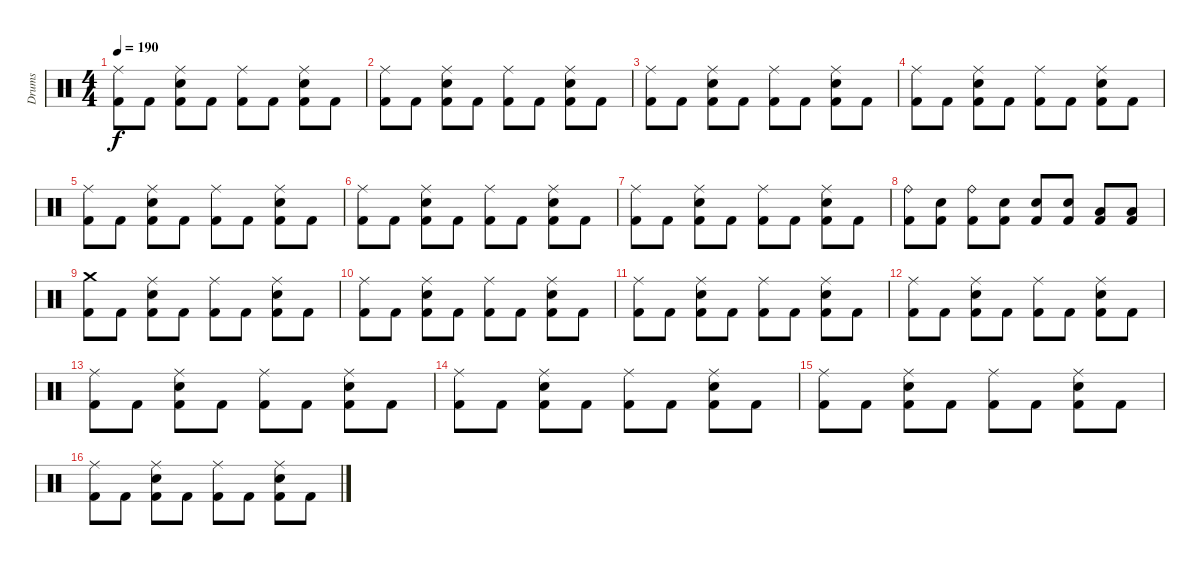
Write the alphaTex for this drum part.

\track ("Drums" "Drums") {instrument percussion}
\staff {score}
\articulation defaults
\ts (4 4)
\tempo 190
\clef neutral
\ks c
("Ride (middle)" "Kick (hit) 2").8{dy f} "Kick (hit) 2".8 ("Ride (middle)" "Snare (hit) 2" "Kick (hit) 2").8 "Kick (hit) 2".8 ("Ride (middle)" "Kick (hit) 2").8 "Kick (hit) 2".8 ("Ride (middle)" "Snare (hit) 2" "Kick (hit) 2").8 "Kick (hit) 2".8 |
("Ride (middle)" "Kick (hit) 2").8 "Kick (hit) 2".8 ("Ride (middle)" "Snare (hit) 2" "Kick (hit) 2").8 "Kick (hit) 2".8 ("Ride (middle)" "Kick (hit) 2").8 "Kick (hit) 2".8 ("Ride (middle)" "Snare (hit) 2" "Kick (hit) 2").8 "Kick (hit) 2".8 |
("Ride (middle)" "Kick (hit) 2").8 "Kick (hit) 2".8 ("Ride (middle)" "Snare (hit) 2" "Kick (hit) 2").8 "Kick (hit) 2".8 ("Ride (middle)" "Kick (hit) 2").8 "Kick (hit) 2".8 ("Ride (middle)" "Snare (hit) 2" "Kick (hit) 2").8 "Kick (hit) 2".8 |
("Ride (middle)" "Kick (hit) 2").8 "Kick (hit) 2".8 ("Ride (middle)" "Snare (hit) 2" "Kick (hit) 2").8 "Kick (hit) 2".8 ("Ride (middle)" "Kick (hit) 2").8 "Kick (hit) 2".8 ("Ride (middle)" "Snare (hit) 2" "Kick (hit) 2").8 "Kick (hit) 2".8 |
("Ride (middle)" "Kick (hit) 2").8 "Kick (hit) 2".8 ("Ride (middle)" "Snare (hit) 2" "Kick (hit) 2").8 "Kick (hit) 2".8 ("Ride (middle)" "Kick (hit) 2").8 "Kick (hit) 2".8 ("Ride (middle)" "Snare (hit) 2" "Kick (hit) 2").8 "Kick (hit) 2".8 |
("Ride (middle)" "Kick (hit) 2").8 "Kick (hit) 2".8 ("Ride (middle)" "Snare (hit) 2" "Kick (hit) 2").8 "Kick (hit) 2".8 ("Ride (middle)" "Kick (hit) 2").8 "Kick (hit) 2".8 ("Ride (middle)" "Snare (hit) 2" "Kick (hit) 2").8 "Kick (hit) 2".8 |
("Ride (middle)" "Kick (hit) 2").8 "Kick (hit) 2".8 ("Ride (middle)" "Snare (hit) 2" "Kick (hit) 2").8 "Kick (hit) 2".8 ("Ride (middle)" "Kick (hit) 2").8 "Kick (hit) 2".8 ("Ride (middle)" "Snare (hit) 2" "Kick (hit) 2").8 "Kick (hit) 2".8 |
("Ride (bell)" "Kick (hit) 2").8 ("Snare (hit) 2" "Kick (hit) 2").8 ("Ride (bell)" "Kick (hit) 2").8 ("Snare (hit) 2" "Kick (hit) 2").8 ("Snare (hit) 2" "Kick (hit) 2").8 ("Snare (hit) 2" "Kick (hit) 2").8 ("Low Tom (hit)" "Kick (hit) 2").8 ("Low Tom (hit)" "Kick (hit) 2").8 |
("Crash medium (hit)" "Kick (hit) 2").8 "Kick (hit) 2".8 ("Ride (middle)" "Snare (hit) 2" "Kick (hit) 2").8 "Kick (hit) 2".8 ("Ride (middle)" "Kick (hit) 2").8 "Kick (hit) 2".8 ("Ride (middle)" "Snare (hit) 2" "Kick (hit) 2").8 "Kick (hit) 2".8 |
("Ride (middle)" "Kick (hit) 2").8 "Kick (hit) 2".8 ("Ride (middle)" "Snare (hit) 2" "Kick (hit) 2").8 "Kick (hit) 2".8 ("Ride (middle)" "Kick (hit) 2").8 "Kick (hit) 2".8 ("Ride (middle)" "Snare (hit) 2" "Kick (hit) 2").8 "Kick (hit) 2".8 |
("Ride (middle)" "Kick (hit) 2").8 "Kick (hit) 2".8 ("Ride (middle)" "Snare (hit) 2" "Kick (hit) 2").8 "Kick (hit) 2".8 ("Ride (middle)" "Kick (hit) 2").8 "Kick (hit) 2".8 ("Ride (middle)" "Snare (hit) 2" "Kick (hit) 2").8 "Kick (hit) 2".8 |
("Ride (middle)" "Kick (hit) 2").8 "Kick (hit) 2".8 ("Ride (middle)" "Snare (hit) 2" "Kick (hit) 2").8 "Kick (hit) 2".8 ("Ride (middle)" "Kick (hit) 2").8 "Kick (hit) 2".8 ("Ride (middle)" "Snare (hit) 2" "Kick (hit) 2").8 "Kick (hit) 2".8 |
("Ride (middle)" "Kick (hit) 2").8 "Kick (hit) 2".8 ("Ride (middle)" "Snare (hit) 2" "Kick (hit) 2").8 "Kick (hit) 2".8 ("Ride (middle)" "Kick (hit) 2").8 "Kick (hit) 2".8 ("Ride (middle)" "Snare (hit) 2" "Kick (hit) 2").8 "Kick (hit) 2".8 |
("Ride (middle)" "Kick (hit) 2").8 "Kick (hit) 2".8 ("Ride (middle)" "Snare (hit) 2" "Kick (hit) 2").8 "Kick (hit) 2".8 ("Ride (middle)" "Kick (hit) 2").8 "Kick (hit) 2".8 ("Ride (middle)" "Snare (hit) 2" "Kick (hit) 2").8 "Kick (hit) 2".8 |
("Ride (middle)" "Kick (hit) 2").8 "Kick (hit) 2".8 ("Ride (middle)" "Snare (hit) 2" "Kick (hit) 2").8 "Kick (hit) 2".8 ("Ride (middle)" "Kick (hit) 2").8 "Kick (hit) 2".8 ("Ride (middle)" "Snare (hit) 2" "Kick (hit) 2").8 "Kick (hit) 2".8 |
("Ride (middle)" "Kick (hit) 2").8 "Kick (hit) 2".8 ("Ride (middle)" "Snare (hit) 2" "Kick (hit) 2").8 "Kick (hit) 2".8 ("Ride (middle)" "Kick (hit) 2").8 "Kick (hit) 2".8 ("Ride (middle)" "Snare (hit) 2" "Kick (hit) 2").8 "Kick (hit) 2".8
